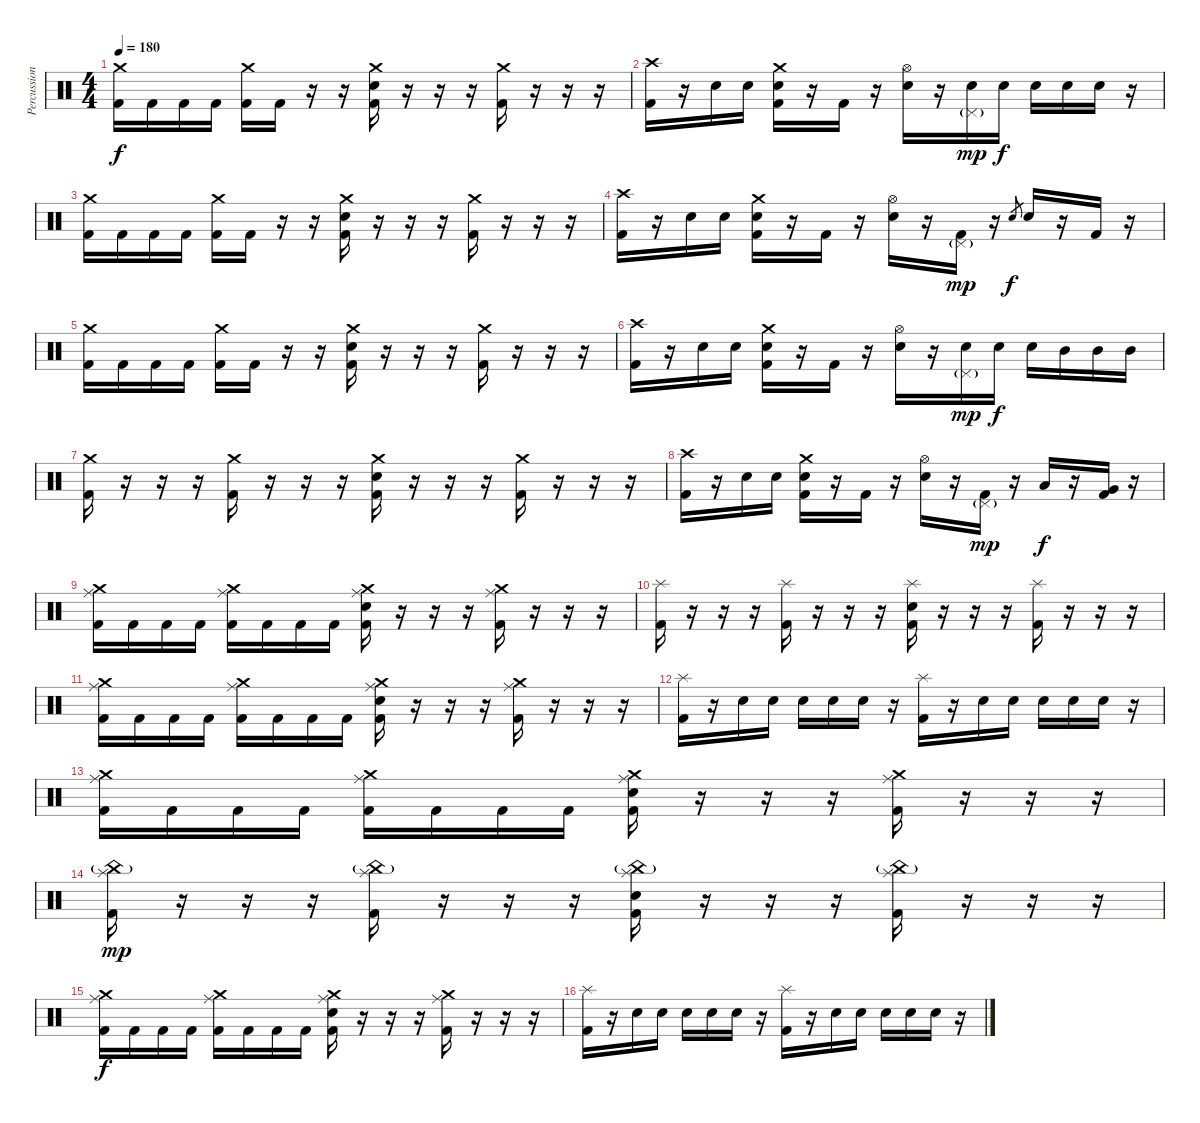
\track ("Percussion" "Percussion") {instrument percussion}
\staff {score}
\articulation defaults
\ts (4 4)
\tempo 180
\clef neutral
\ks c
("Crash medium (hit)" "Kick (hit) 2").16{dy f} "Kick (hit) 2".16 "Kick (hit) 2".16 "Kick (hit) 2".16 ("Crash medium (hit)" "Kick (hit) 2").16 "Kick (hit) 2".16 r.16 r.16 ("Crash medium (hit)" "Electric Snare (hit)" "Kick (hit) 2").16 r.16 r.16 r.16 ("Crash medium (hit)" "Kick (hit) 2").16 r.16 r.16 r.16 |
("Crash high (hit)" "Kick (hit) 2").16 r.16 "Electric Snare (hit)".16 "Electric Snare (hit)".16 ("Crash medium (hit)" "Electric Snare (hit)" "Kick (hit) 2").16 r.16 "Kick (hit) 2".16 r.16 ("Hi-Hat (open)" "Electric Snare (hit)").16 r.16 ("Pedal Hi-Hat (hit)"{g} "Electric Snare (hit)").16{dy mp} "Electric Snare (hit)".16{dy f} "Electric Snare (hit)".16 "Electric Snare (hit)".16 "Electric Snare (hit)".16 r.16 |
("Crash medium (hit)" "Kick (hit) 2").16 "Kick (hit) 2".16 "Kick (hit) 2".16 "Kick (hit) 2".16 ("Crash medium (hit)" "Kick (hit) 2").16 "Kick (hit) 2".16 r.16 r.16 ("Crash medium (hit)" "Electric Snare (hit)" "Kick (hit) 2").16 r.16 r.16 r.16 ("Crash medium (hit)" "Kick (hit) 2").16 r.16 r.16 r.16 |
("Crash high (hit)" "Kick (hit) 2").16 r.16 "Electric Snare (hit)".16 "Electric Snare (hit)".16 ("Crash medium (hit)" "Electric Snare (hit)" "Kick (hit) 2").16 r.16 "Kick (hit) 2".16 r.16 ("Hi-Hat (open)" "Electric Snare (hit)").16 r.16 ("Pedal Hi-Hat (hit)"{g} "Kick (hit) 2").16{dy mp} r.16 "Electric Snare (hit)".8{gr dy f} "Electric Snare (hit)".16 r.16 "Kick (hit) 2".16 r.16 |
("Crash medium (hit)" "Kick (hit) 2").16 "Kick (hit) 2".16 "Kick (hit) 2".16 "Kick (hit) 2".16 ("Crash medium (hit)" "Kick (hit) 2").16 "Kick (hit) 2".16 r.16 r.16 ("Crash medium (hit)" "Electric Snare (hit)" "Kick (hit) 2").16 r.16 r.16 r.16 ("Crash medium (hit)" "Kick (hit) 2").16 r.16 r.16 r.16 |
("Crash high (hit)" "Kick (hit) 2").16 r.16 "Electric Snare (hit)".16 "Electric Snare (hit)".16 ("Crash medium (hit)" "Electric Snare (hit)" "Kick (hit) 2").16 r.16 "Kick (hit) 2".16 r.16 ("Hi-Hat (open)" "Electric Snare (hit)").16 r.16 ("Pedal Hi-Hat (hit)"{g} "Electric Snare (hit)").16{dy mp} "Electric Snare (hit)".16{dy f} "Electric Snare (hit)".16 "Mid Tom (hit)".16 "Mid Tom (hit)".16 "Mid Tom (hit)".16 |
("Crash medium (hit)" "Kick (hit) 2").16 r.16 r.16 r.16 ("Crash medium (hit)" "Kick (hit) 2").16 r.16 r.16 r.16 ("Crash medium (hit)" "Electric Snare (hit)" "Kick (hit) 2").16 r.16 r.16 r.16 ("Crash medium (hit)" "Kick (hit) 2").16 r.16 r.16 r.16 |
("Crash high (hit)" "Kick (hit) 2").16 r.16 "Electric Snare (hit)".16 "Electric Snare (hit)".16 ("Crash medium (hit)" "Electric Snare (hit)" "Kick (hit) 2").16 r.16 "Kick (hit) 2".16 r.16 ("Hi-Hat (open)" "Electric Snare (hit)").16 r.16 ("Pedal Hi-Hat (hit)"{g} "Kick (hit) 2").16{dy mp} r.16 "Low Tom (hit)".16{dy f} r.16 ("Very Low Tom (hit)" "Kick (hit) 2").16 r.16 |
("Crash medium (hit)" "Ride (middle)" "Kick (hit) 2").16 "Kick (hit) 2".16 "Kick (hit) 2".16 "Kick (hit) 2".16 ("Crash medium (hit)" "Ride (middle)" "Kick (hit) 2").16 "Kick (hit) 2".16 "Kick (hit) 2".16 "Kick (hit) 2".16 ("Crash medium (hit)" "Ride (middle)" "Electric Snare (hit)" "Kick (hit) 2").16 r.16 r.16 r.16 ("Crash medium (hit)" "Ride (middle)" "Kick (hit) 2").16 r.16 r.16 r.16 |
("Splash (hit)" "Kick (hit) 2").16 r.16 r.16 r.16 ("Splash (hit)" "Kick (hit) 2").16 r.16 r.16 r.16 ("Splash (hit)" "Electric Snare (hit)" "Kick (hit) 2").16 r.16 r.16 r.16 ("Splash (hit)" "Kick (hit) 2").16 r.16 r.16 r.16 |
("Crash medium (hit)" "Ride (middle)" "Kick (hit) 2").16 "Kick (hit) 2".16 "Kick (hit) 2".16 "Kick (hit) 2".16 ("Crash medium (hit)" "Ride (middle)" "Kick (hit) 2").16 "Kick (hit) 2".16 "Kick (hit) 2".16 "Kick (hit) 2".16 ("Crash medium (hit)" "Ride (middle)" "Electric Snare (hit)" "Kick (hit) 2").16 r.16 r.16 r.16 ("Crash medium (hit)" "Ride (middle)" "Kick (hit) 2").16 r.16 r.16 r.16 |
("Splash (hit)" "Kick (hit) 2").16 r.16 "Electric Snare (hit)".16 "Electric Snare (hit)".16 "Electric Snare (hit)".16 "Electric Snare (hit)".16 "Electric Snare (hit)".16 r.16 ("Splash (hit)" "Kick (hit) 2").16 r.16 "Electric Snare (hit)".16 "Electric Snare (hit)".16 "Electric Snare (hit)".16 "Electric Snare (hit)".16 "Electric Snare (hit)".16 r.16 |
("Crash medium (hit)" "Ride (middle)" "Kick (hit) 2").16 "Kick (hit) 2".16 "Kick (hit) 2".16 "Kick (hit) 2".16 ("Crash medium (hit)" "Ride (middle)" "Kick (hit) 2").16 "Kick (hit) 2".16 "Kick (hit) 2".16 "Kick (hit) 2".16 ("Crash medium (hit)" "Ride (middle)" "Electric Snare (hit)" "Kick (hit) 2").16 r.16 r.16 r.16 ("Crash medium (hit)" "Ride (middle)" "Kick (hit) 2").16 r.16 r.16 r.16 |
("China (hit)"{g} "Splash (hit)" "Kick (hit) 2").16{dy mp} r.16 r.16 r.16 ("China (hit)"{g} "Splash (hit)" "Kick (hit) 2").16 r.16 r.16 r.16 ("China (hit)"{g} "Splash (hit)" "Electric Snare (hit)" "Kick (hit) 2").16 r.16 r.16 r.16 ("China (hit)"{g} "Splash (hit)" "Kick (hit) 2").16 r.16 r.16 r.16 |
("Crash medium (hit)" "Ride (middle)" "Kick (hit) 2").16{dy f} "Kick (hit) 2".16 "Kick (hit) 2".16 "Kick (hit) 2".16 ("Crash medium (hit)" "Ride (middle)" "Kick (hit) 2").16 "Kick (hit) 2".16 "Kick (hit) 2".16 "Kick (hit) 2".16 ("Crash medium (hit)" "Ride (middle)" "Electric Snare (hit)" "Kick (hit) 2").16 r.16 r.16 r.16 ("Crash medium (hit)" "Ride (middle)" "Kick (hit) 2").16 r.16 r.16 r.16 |
("Splash (hit)" "Kick (hit) 2").16 r.16 "Electric Snare (hit)".16 "Electric Snare (hit)".16 "Electric Snare (hit)".16 "Electric Snare (hit)".16 "Electric Snare (hit)".16 r.16 ("Splash (hit)" "Kick (hit) 2").16 r.16 "Electric Snare (hit)".16 "Electric Snare (hit)".16 "Electric Snare (hit)".16 "Electric Snare (hit)".16 "Electric Snare (hit)".16 r.16
